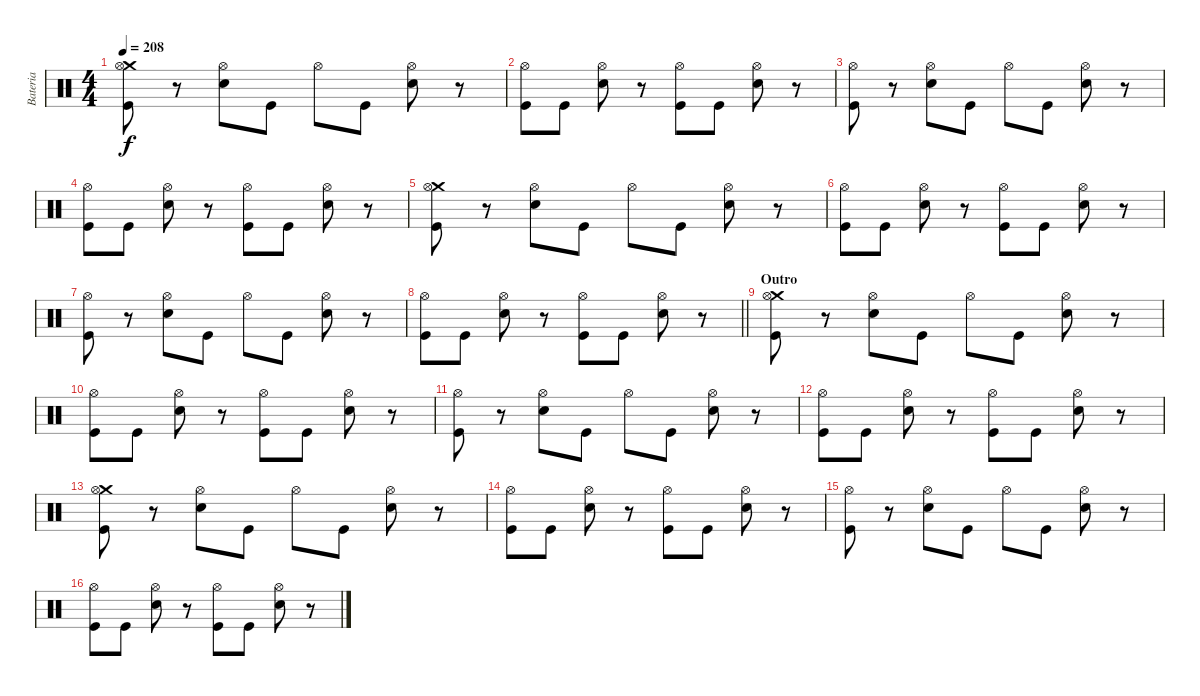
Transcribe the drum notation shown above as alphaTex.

\track ("Bateria" "Bateria") {instrument percussion}
\staff {score}
\articulation defaults
\ts (4 4)
\tempo 208
\clef neutral
\ks c
("Crash medium (hit)" "Hi-Hat (open)" "Kick (hit)").8{dy f} r.8 ("Hi-Hat (open)" "Electric Snare (hit)").8 "Kick (hit)".8 "Hi-Hat (open)".8 "Kick (hit)".8 ("Hi-Hat (open)" "Electric Snare (hit)").8 r.8 |
("Hi-Hat (open)" "Kick (hit)").8 "Kick (hit)".8 ("Hi-Hat (open)" "Electric Snare (hit)").8 r.8 ("Hi-Hat (open)" "Kick (hit)").8 "Kick (hit)".8 ("Hi-Hat (open)" "Electric Snare (hit)").8 r.8 |
("Hi-Hat (open)" "Kick (hit)").8 r.8 ("Hi-Hat (open)" "Electric Snare (hit)").8 "Kick (hit)".8 "Hi-Hat (open)".8 "Kick (hit)".8 ("Hi-Hat (open)" "Electric Snare (hit)").8 r.8 |
("Hi-Hat (open)" "Kick (hit)").8 "Kick (hit)".8 ("Hi-Hat (open)" "Electric Snare (hit)").8 r.8 ("Hi-Hat (open)" "Kick (hit)").8 "Kick (hit)".8 ("Hi-Hat (open)" "Electric Snare (hit)").8 r.8 |
("Crash medium (hit)" "Hi-Hat (open)" "Kick (hit)").8 r.8 ("Hi-Hat (open)" "Electric Snare (hit)").8 "Kick (hit)".8 "Hi-Hat (open)".8 "Kick (hit)".8 ("Hi-Hat (open)" "Electric Snare (hit)").8 r.8 |
("Hi-Hat (open)" "Kick (hit)").8 "Kick (hit)".8 ("Hi-Hat (open)" "Electric Snare (hit)").8 r.8 ("Hi-Hat (open)" "Kick (hit)").8 "Kick (hit)".8 ("Hi-Hat (open)" "Electric Snare (hit)").8 r.8 |
("Hi-Hat (open)" "Kick (hit)").8 r.8 ("Hi-Hat (open)" "Electric Snare (hit)").8 "Kick (hit)".8 "Hi-Hat (open)".8 "Kick (hit)".8 ("Hi-Hat (open)" "Electric Snare (hit)").8 r.8 |
\barLineRight lightlight
("Hi-Hat (open)" "Kick (hit)").8 "Kick (hit)".8 ("Hi-Hat (open)" "Electric Snare (hit)").8 r.8 ("Hi-Hat (open)" "Kick (hit)").8 "Kick (hit)".8 ("Hi-Hat (open)" "Electric Snare (hit)").8 r.8 |
\section ("" "Outro")
("Crash medium (hit)" "Hi-Hat (open)" "Kick (hit)").8 r.8 ("Hi-Hat (open)" "Electric Snare (hit)").8 "Kick (hit)".8 "Hi-Hat (open)".8 "Kick (hit)".8 ("Hi-Hat (open)" "Electric Snare (hit)").8 r.8 |
("Hi-Hat (open)" "Kick (hit)").8 "Kick (hit)".8 ("Hi-Hat (open)" "Electric Snare (hit)").8 r.8 ("Hi-Hat (open)" "Kick (hit)").8 "Kick (hit)".8 ("Hi-Hat (open)" "Electric Snare (hit)").8 r.8 |
("Hi-Hat (open)" "Kick (hit)").8 r.8 ("Hi-Hat (open)" "Electric Snare (hit)").8 "Kick (hit)".8 "Hi-Hat (open)".8 "Kick (hit)".8 ("Hi-Hat (open)" "Electric Snare (hit)").8 r.8 |
("Hi-Hat (open)" "Kick (hit)").8 "Kick (hit)".8 ("Hi-Hat (open)" "Electric Snare (hit)").8 r.8 ("Hi-Hat (open)" "Kick (hit)").8 "Kick (hit)".8 ("Hi-Hat (open)" "Electric Snare (hit)").8 r.8 |
("Crash medium (hit)" "Hi-Hat (open)" "Kick (hit)").8 r.8 ("Hi-Hat (open)" "Electric Snare (hit)").8 "Kick (hit)".8 "Hi-Hat (open)".8 "Kick (hit)".8 ("Hi-Hat (open)" "Electric Snare (hit)").8 r.8 |
("Hi-Hat (open)" "Kick (hit)").8 "Kick (hit)".8 ("Hi-Hat (open)" "Electric Snare (hit)").8 r.8 ("Hi-Hat (open)" "Kick (hit)").8 "Kick (hit)".8 ("Hi-Hat (open)" "Electric Snare (hit)").8 r.8 |
("Hi-Hat (open)" "Kick (hit)").8 r.8 ("Hi-Hat (open)" "Electric Snare (hit)").8 "Kick (hit)".8 "Hi-Hat (open)".8 "Kick (hit)".8 ("Hi-Hat (open)" "Electric Snare (hit)").8 r.8 |
("Hi-Hat (open)" "Kick (hit)").8 "Kick (hit)".8 ("Hi-Hat (open)" "Electric Snare (hit)").8 r.8 ("Hi-Hat (open)" "Kick (hit)").8 "Kick (hit)".8 ("Hi-Hat (open)" "Electric Snare (hit)").8 r.8
